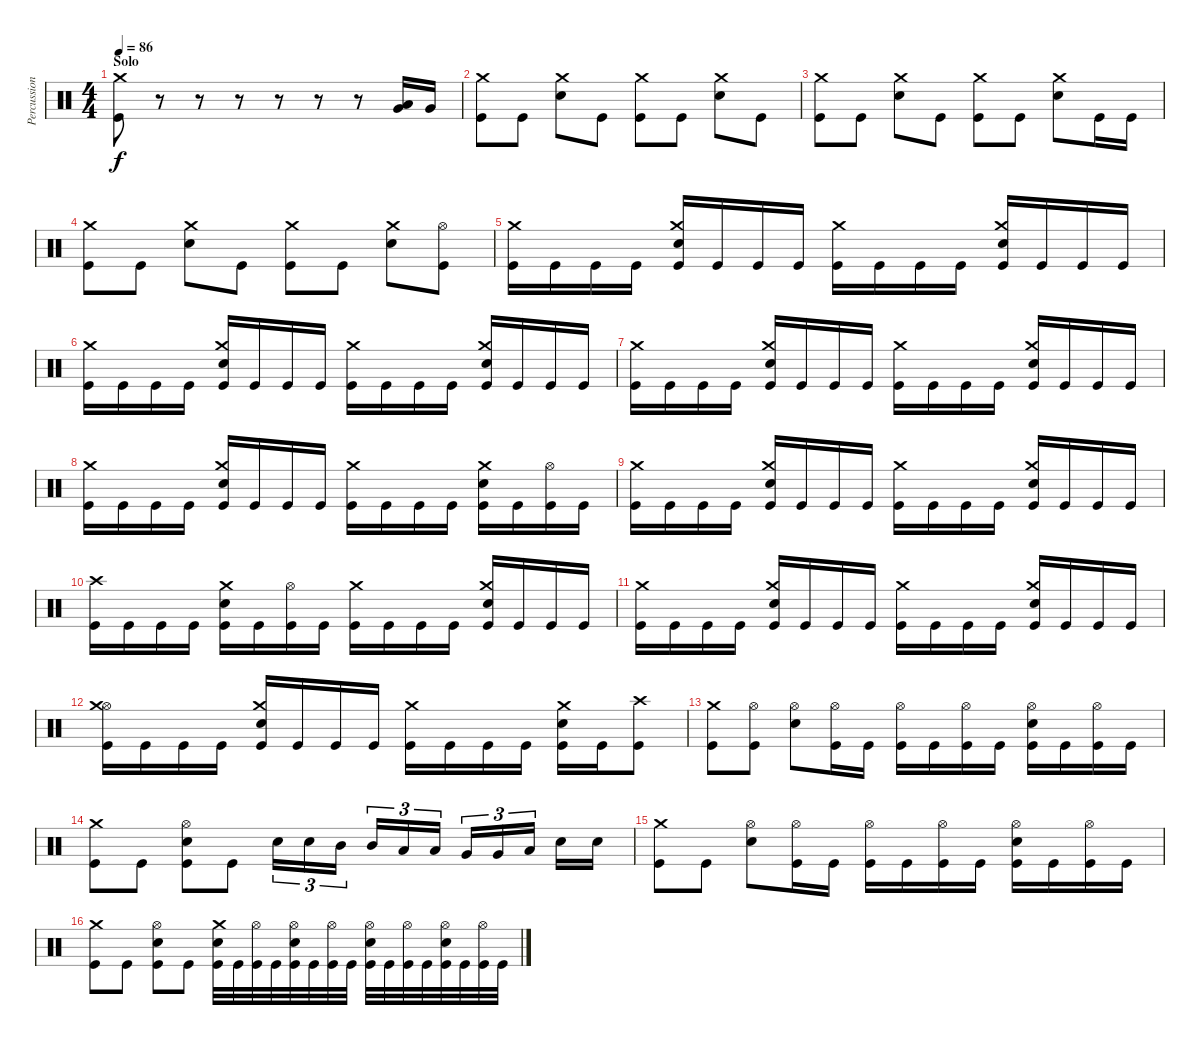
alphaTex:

\track ("Percussion" "Percussion") {instrument percussion}
\staff {score}
\articulation defaults
\ts (4 4)
\section ("" "Solo")
\tempo 86
\clef neutral
\ks c
("Kick (hit)" "Crash medium (hit)").8{dy f} r.8 r.8 r.8 r.8 r.8 r.8 ("Low Tom (hit)" "Very Low Tom (hit)").16{bd 120} "Very Low Tom (hit)".16 |
("Kick (hit)" "Crash medium (hit)").8 "Kick (hit)".8 ("Snare (hit) 2" "Crash medium (hit)").8 "Kick (hit)".8 ("Kick (hit)" "Crash medium (hit)").8 "Kick (hit)".8 ("Snare (hit) 2" "Crash medium (hit)").8 "Kick (hit)".8 |
("Kick (hit)" "Crash medium (hit)").8 "Kick (hit)".8 ("Snare (hit) 2" "Crash medium (hit)").8 "Kick (hit)".8 ("Kick (hit)" "Crash medium (hit)").8 "Kick (hit)".8 ("Snare (hit) 2" "Crash medium (hit)").8 "Kick (hit)".16 "Kick (hit)".16 |
("Kick (hit)" "Crash medium (hit)").8 "Kick (hit)".8 ("Snare (hit) 2" "Crash medium (hit)").8 "Kick (hit)".8 ("Kick (hit)" "Crash medium (hit)").8 "Kick (hit)".8 ("Snare (hit) 2" "Crash medium (hit)").8 ("Kick (hit)" "Hi-Hat (open)").8 |
("Kick (hit)" "Crash medium (hit)").16 "Kick (hit)".16 "Kick (hit)".16 "Kick (hit)".16 ("Kick (hit)" "Snare (hit) 2" "Crash medium (hit)").16 "Kick (hit)".16 "Kick (hit)".16 "Kick (hit)".16 ("Kick (hit)" "Crash medium (hit)").16 "Kick (hit)".16 "Kick (hit)".16 "Kick (hit)".16 ("Kick (hit)" "Snare (hit) 2" "Crash medium (hit)").16 "Kick (hit)".16 "Kick (hit)".16 "Kick (hit)".16 |
("Kick (hit)" "Crash medium (hit)").16 "Kick (hit)".16 "Kick (hit)".16 "Kick (hit)".16 ("Kick (hit)" "Snare (hit) 2" "Crash medium (hit)").16 "Kick (hit)".16 "Kick (hit)".16 "Kick (hit)".16 ("Kick (hit)" "Crash medium (hit)").16 "Kick (hit)".16 "Kick (hit)".16 "Kick (hit)".16 ("Kick (hit)" "Snare (hit) 2" "Crash medium (hit)").16 "Kick (hit)".16 "Kick (hit)".16 "Kick (hit)".16 |
("Kick (hit)" "Crash medium (hit)").16 "Kick (hit)".16 "Kick (hit)".16 "Kick (hit)".16 ("Kick (hit)" "Snare (hit) 2" "Crash medium (hit)").16 "Kick (hit)".16 "Kick (hit)".16 "Kick (hit)".16 ("Kick (hit)" "Crash medium (hit)").16 "Kick (hit)".16 "Kick (hit)".16 "Kick (hit)".16 ("Kick (hit)" "Snare (hit) 2" "Crash medium (hit)").16 "Kick (hit)".16 "Kick (hit)".16 "Kick (hit)".16 |
("Kick (hit)" "Crash medium (hit)").16 "Kick (hit)".16 "Kick (hit)".16 "Kick (hit)".16 ("Kick (hit)" "Snare (hit) 2" "Crash medium (hit)").16 "Kick (hit)".16 "Kick (hit)".16 "Kick (hit)".16 ("Kick (hit)" "Crash medium (hit)").16 "Kick (hit)".16 "Kick (hit)".16 "Kick (hit)".16 ("Kick (hit)" "Snare (hit) 2" "Crash medium (hit)").16 "Kick (hit)".16 ("Kick (hit)" "Hi-Hat (open)").16 "Kick (hit)".16 |
("Kick (hit)" "Crash medium (hit)").16 "Kick (hit)".16 "Kick (hit)".16 "Kick (hit)".16 ("Kick (hit)" "Snare (hit) 2" "Crash medium (hit)").16 "Kick (hit)".16 "Kick (hit)".16 "Kick (hit)".16 ("Kick (hit)" "Crash medium (hit)").16 "Kick (hit)".16 "Kick (hit)".16 "Kick (hit)".16 ("Kick (hit)" "Snare (hit) 2" "Crash medium (hit)").16 "Kick (hit)".16 "Kick (hit)".16 "Kick (hit)".16 |
("Kick (hit)" "Crash high (hit)").16 "Kick (hit)".16 "Kick (hit)".16 "Kick (hit)".16 ("Kick (hit)" "Snare (hit) 2" "Crash medium (hit)").16 "Kick (hit)".16 ("Kick (hit)" "Hi-Hat (open)").16 "Kick (hit)".16 ("Kick (hit)" "Crash medium (hit)").16 "Kick (hit)".16 "Kick (hit)".16 "Kick (hit)".16 ("Kick (hit)" "Snare (hit) 2" "Crash medium (hit)").16 "Kick (hit)".16 "Kick (hit)".16 "Kick (hit)".16 |
("Kick (hit)" "Crash medium (hit)").16 "Kick (hit)".16 "Kick (hit)".16 "Kick (hit)".16 ("Kick (hit)" "Snare (hit) 2" "Crash medium (hit)").16 "Kick (hit)".16 "Kick (hit)".16 "Kick (hit)".16 ("Kick (hit)" "Crash medium (hit)").16 "Kick (hit)".16 "Kick (hit)".16 "Kick (hit)".16 ("Kick (hit)" "Snare (hit) 2" "Crash medium (hit)").16 "Kick (hit)".16 "Kick (hit)".16 "Kick (hit)".16 |
("Kick (hit)" "Hi-Hat (open)" "Crash medium (hit)").16 "Kick (hit)".16 "Kick (hit)".16 "Kick (hit)".16 ("Kick (hit)" "Snare (hit) 2" "Crash medium (hit)").16 "Kick (hit)".16 "Kick (hit)".16 "Kick (hit)".16 ("Kick (hit)" "Crash medium (hit)").16 "Kick (hit)".16 "Kick (hit)".16 "Kick (hit)".16 ("Kick (hit)" "Snare (hit) 2" "Crash medium (hit)").16 "Kick (hit)".16 ("Kick (hit)" "Crash high (hit)").8 |
("Kick (hit)" "Crash medium (hit)").8 ("Kick (hit)" "Hi-Hat (open)").8 ("Snare (hit) 2" "Hi-Hat (open)").8 ("Kick (hit)" "Hi-Hat (open)").16 "Kick (hit)".16 ("Kick (hit)" "Hi-Hat (open)").16 "Kick (hit)".16 ("Kick (hit)" "Hi-Hat (open)").16 "Kick (hit)".16 ("Kick (hit)" "Snare (hit) 2" "Hi-Hat (open)").16 "Kick (hit)".16 ("Kick (hit)" "Hi-Hat (open)").16 "Kick (hit)".16 |
("Kick (hit)" "Crash medium (hit)").8 "Kick (hit)".8 ("Kick (hit)" "Snare (hit) 2" "Hi-Hat (open)").8 "Kick (hit)".8 "Snare (hit) 2".16{tu (3 2)} "Snare (hit) 2".16{tu (3 2)} "Mid Tom (hit)".16{tu (3 2) beam splitsecondary} "Mid Tom (hit)".16{tu (3 2)} "Low Tom (hit)".16{tu (3 2)} "Low Tom (hit)".16{tu (3 2)} "Very Low Tom (hit)".16{tu (3 2)} "Very Low Tom (hit)".16{tu (3 2)} "Low Floor Tom (hit)".16{tu (3 2) beam splitsecondary} "Snare (hit) 2".16 "Snare (hit) 2".16 |
("Kick (hit)" "Crash medium (hit)").8 "Kick (hit)".8 ("Snare (hit) 2" "Hi-Hat (open)").8 ("Kick (hit)" "Hi-Hat (open)").16 "Kick (hit)".16 ("Kick (hit)" "Hi-Hat (open)").16 "Kick (hit)".16 ("Kick (hit)" "Hi-Hat (open)").16 "Kick (hit)".16 ("Kick (hit)" "Snare (hit) 2" "Hi-Hat (open)").16 "Kick (hit)".16 ("Kick (hit)" "Hi-Hat (open)").16 "Kick (hit)".16 |
("Kick (hit)" "Crash medium (hit)").8 "Kick (hit)".8 ("Kick (hit)" "Snare (hit) 2" "Hi-Hat (open)").8 "Kick (hit)".8 ("Kick (hit)" "Snare (hit) 2" "Crash medium (hit)").32 "Kick (hit)".32 ("Kick (hit)" "Hi-Hat (open)").32 "Kick (hit)".32 ("Kick (hit)" "Snare (hit) 2" "Hi-Hat (open)").32 "Kick (hit)".32 ("Kick (hit)" "Hi-Hat (open)").32 "Kick (hit)".32 ("Kick (hit)" "Snare (hit) 2" "Hi-Hat (open)").32 "Kick (hit)".32 ("Kick (hit)" "Hi-Hat (open)").32 "Kick (hit)".32 ("Kick (hit)" "Snare (hit) 2" "Hi-Hat (open)").32 "Kick (hit)".32 ("Kick (hit)" "Hi-Hat (open)").32 "Kick (hit)".32
